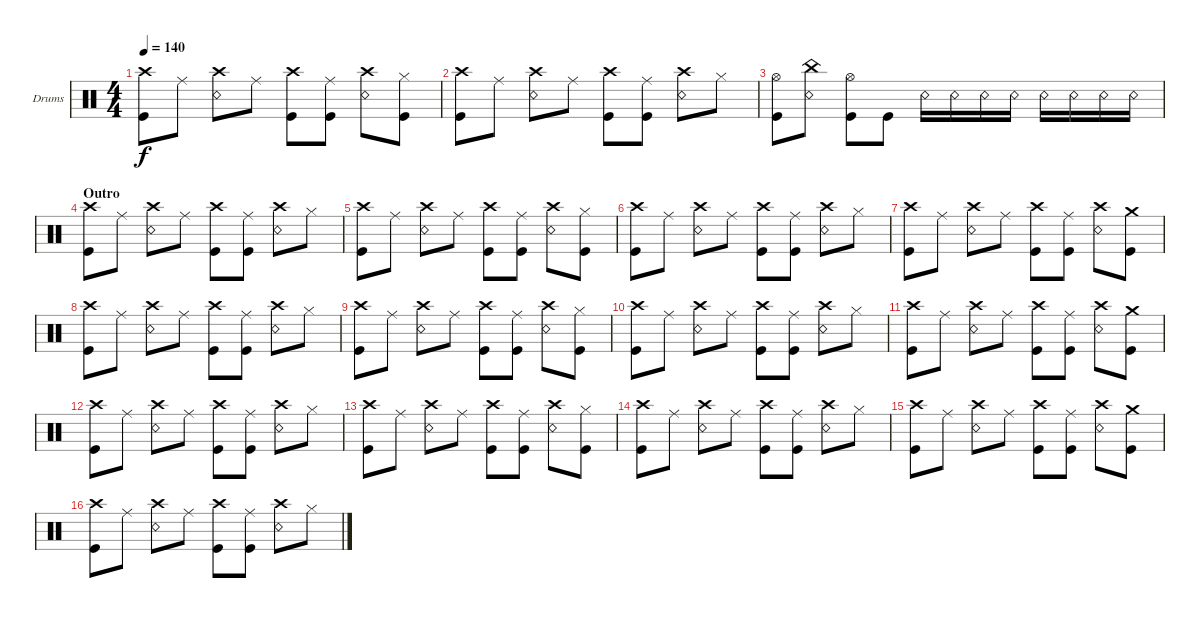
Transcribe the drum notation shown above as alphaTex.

\bracketExtendMode groupsimilarinstruments
\firstSystemTrackNameOrientation horizontal
\otherSystemsTrackNameOrientation horizontal
\track ("Drumkit" "Drums") {instrument percussion}
\staff {score}
\articulation defaults
\ts (4 4)
\tempo 140
\clef neutral
\ks c
("Kick (hit)" "Crash high (hit)").8{dy f} "Ride (middle)".8 ("Crash high (hit)" "Snare (rim shot)").8 "Ride (middle)".8 ("Crash high (hit)" "Kick (hit)").8 ("Kick (hit)" "Ride (middle)").8 ("Crash high (hit)" "Snare (rim shot)").8 ("Hi-Hat (closed)" "Kick (hit)").8 |
("Kick (hit)" "Crash high (hit)").8 "Ride (middle)".8 ("Crash high (hit)" "Snare (rim shot)").8 "Ride (middle)".8 ("Crash high (hit)" "Kick (hit)").8 ("Kick (hit)" "Ride (middle)").8 ("Crash high (hit)" "Snare (rim shot)").8 "Hi-Hat (closed)".8 |
("Kick (hit)" "Hi-Hat (open)").8 ("Snare (rim shot)" "China (hit)").8 ("Kick (hit)" "Hi-Hat (open)").8 "Kick (hit)".8 "Snare (rim shot)".16 "Snare (rim shot)".16 "Snare (rim shot)".16 "Snare (rim shot)".16 "Snare (rim shot)".16 "Snare (rim shot)".16 "Snare (rim shot)".16 "Snare (rim shot)".16 |
\section ("" "Outro")
("Kick (hit)" "Crash high (hit)").8 "Ride (middle)".8 ("Crash high (hit)" "Snare (rim shot)").8 "Ride (middle)".8 ("Crash high (hit)" "Kick (hit)").8 ("Kick (hit)" "Ride (middle)").8 ("Crash high (hit)" "Snare (rim shot)").8 "Hi-Hat (closed)".8 |
("Kick (hit)" "Crash high (hit)").8 "Ride (middle)".8 ("Crash high (hit)" "Snare (rim shot)").8 "Ride (middle)".8 ("Crash high (hit)" "Kick (hit)").8 ("Kick (hit)" "Ride (middle)").8 ("Crash high (hit)" "Snare (rim shot)").8 ("Hi-Hat (closed)" "Kick (hit)").8 |
("Kick (hit)" "Crash high (hit)").8 "Ride (middle)".8 ("Crash high (hit)" "Snare (rim shot)").8 "Ride (middle)".8 ("Crash high (hit)" "Kick (hit)").8 ("Kick (hit)" "Ride (middle)").8 ("Crash high (hit)" "Snare (rim shot)").8 "Hi-Hat (closed)".8 |
("Kick (hit)" "Crash high (hit)").8 "Ride (middle)".8 ("Crash high (hit)" "Snare (rim shot)").8 "Ride (middle)".8 ("Crash high (hit)" "Kick (hit)").8 ("Kick (hit)" "Ride (middle)").8 ("Crash high (hit)" "Snare (rim shot)").8 ("Kick (hit)" "Crash medium (hit)").8 |
("Kick (hit)" "Crash high (hit)").8 "Ride (middle)".8 ("Crash high (hit)" "Snare (rim shot)").8 "Ride (middle)".8 ("Crash high (hit)" "Kick (hit)").8 ("Kick (hit)" "Ride (middle)").8 ("Crash high (hit)" "Snare (rim shot)").8 "Hi-Hat (closed)".8 |
("Kick (hit)" "Crash high (hit)").8 "Ride (middle)".8 ("Crash high (hit)" "Snare (rim shot)").8 "Ride (middle)".8 ("Crash high (hit)" "Kick (hit)").8 ("Kick (hit)" "Ride (middle)").8 ("Crash high (hit)" "Snare (rim shot)").8 ("Hi-Hat (closed)" "Kick (hit)").8 |
("Kick (hit)" "Crash high (hit)").8 "Ride (middle)".8 ("Crash high (hit)" "Snare (rim shot)").8 "Ride (middle)".8 ("Crash high (hit)" "Kick (hit)").8 ("Kick (hit)" "Ride (middle)").8 ("Crash high (hit)" "Snare (rim shot)").8 "Hi-Hat (closed)".8 |
("Kick (hit)" "Crash high (hit)").8 "Ride (middle)".8 ("Crash high (hit)" "Snare (rim shot)").8 "Ride (middle)".8 ("Crash high (hit)" "Kick (hit)").8 ("Kick (hit)" "Ride (middle)").8 ("Crash high (hit)" "Snare (rim shot)").8 ("Kick (hit)" "Crash medium (hit)").8 |
("Kick (hit)" "Crash high (hit)").8 "Ride (middle)".8 ("Crash high (hit)" "Snare (rim shot)").8 "Ride (middle)".8 ("Crash high (hit)" "Kick (hit)").8 ("Kick (hit)" "Ride (middle)").8 ("Crash high (hit)" "Snare (rim shot)").8 "Hi-Hat (closed)".8 |
("Kick (hit)" "Crash high (hit)").8 "Ride (middle)".8 ("Crash high (hit)" "Snare (rim shot)").8 "Ride (middle)".8 ("Crash high (hit)" "Kick (hit)").8 ("Kick (hit)" "Ride (middle)").8 ("Crash high (hit)" "Snare (rim shot)").8 ("Hi-Hat (closed)" "Kick (hit)").8 |
("Kick (hit)" "Crash high (hit)").8 "Ride (middle)".8 ("Crash high (hit)" "Snare (rim shot)").8 "Ride (middle)".8 ("Crash high (hit)" "Kick (hit)").8 ("Kick (hit)" "Ride (middle)").8 ("Crash high (hit)" "Snare (rim shot)").8 "Hi-Hat (closed)".8 |
("Kick (hit)" "Crash high (hit)").8 "Ride (middle)".8 ("Crash high (hit)" "Snare (rim shot)").8 "Ride (middle)".8 ("Crash high (hit)" "Kick (hit)").8 ("Kick (hit)" "Ride (middle)").8 ("Crash high (hit)" "Snare (rim shot)").8 ("Kick (hit)" "Crash medium (hit)").8 |
("Kick (hit)" "Crash high (hit)").8 "Ride (middle)".8 ("Crash high (hit)" "Snare (rim shot)").8 "Ride (middle)".8 ("Crash high (hit)" "Kick (hit)").8 ("Kick (hit)" "Ride (middle)").8 ("Crash high (hit)" "Snare (rim shot)").8 "Hi-Hat (closed)".8
